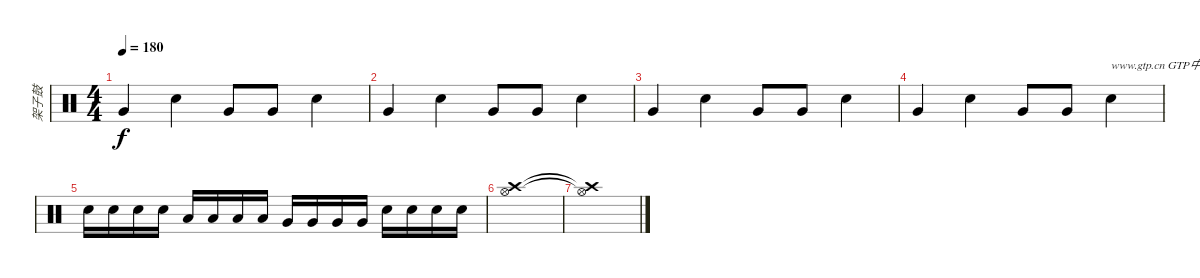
\track ("架子鼓" "架子鼓") {instrument percussion}
\staff {score}
\articulation defaults
\ts (4 4)
\tempo 180
\clef neutral
\ks c "Very Low Tom (hit)".4{dy f} "Electric Snare (hit)".4 "Very Low Tom (hit)".8 "Very Low Tom (hit)".8 "Electric Snare (hit)".4
|
"Very Low Tom (hit)".4 "Electric Snare (hit)".4 "Very Low Tom (hit)".8 "Very Low Tom (hit)".8 "Electric Snare (hit)".4 |
"Very Low Tom (hit)".4 "Electric Snare (hit)".4 "Very Low Tom (hit)".8 "Very Low Tom (hit)".8 "Electric Snare (hit)".4 |
"Very Low Tom (hit)".4 "Electric Snare (hit)".4 "Very Low Tom (hit)".8 "Very Low Tom (hit)".8 "Electric Snare (hit)".4{txt "www.gtp.cn GTP中文网为您提供优秀的谱子"} |
"Electric Snare (hit)".16 "Electric Snare (hit)".16 "Electric Snare (hit)".16 "Electric Snare (hit)".16 "Low Tom (hit)".16 "Low Tom (hit)".16 "Low Tom (hit)".16 "Low Tom (hit)".16 "Very Low Tom (hit)".16 "Very Low Tom (hit)".16 "Very Low Tom (hit)".16 "Very Low Tom (hit)".16 "Electric Snare (hit)".16 "Electric Snare (hit)".16 "Electric Snare (hit)".16 "Electric Snare (hit)".16 |
("Hi-Hat (open)" "Crash high (hit)").1 |
("Hi-Hat (open)"{t} "Crash high (hit)"{t}).1
